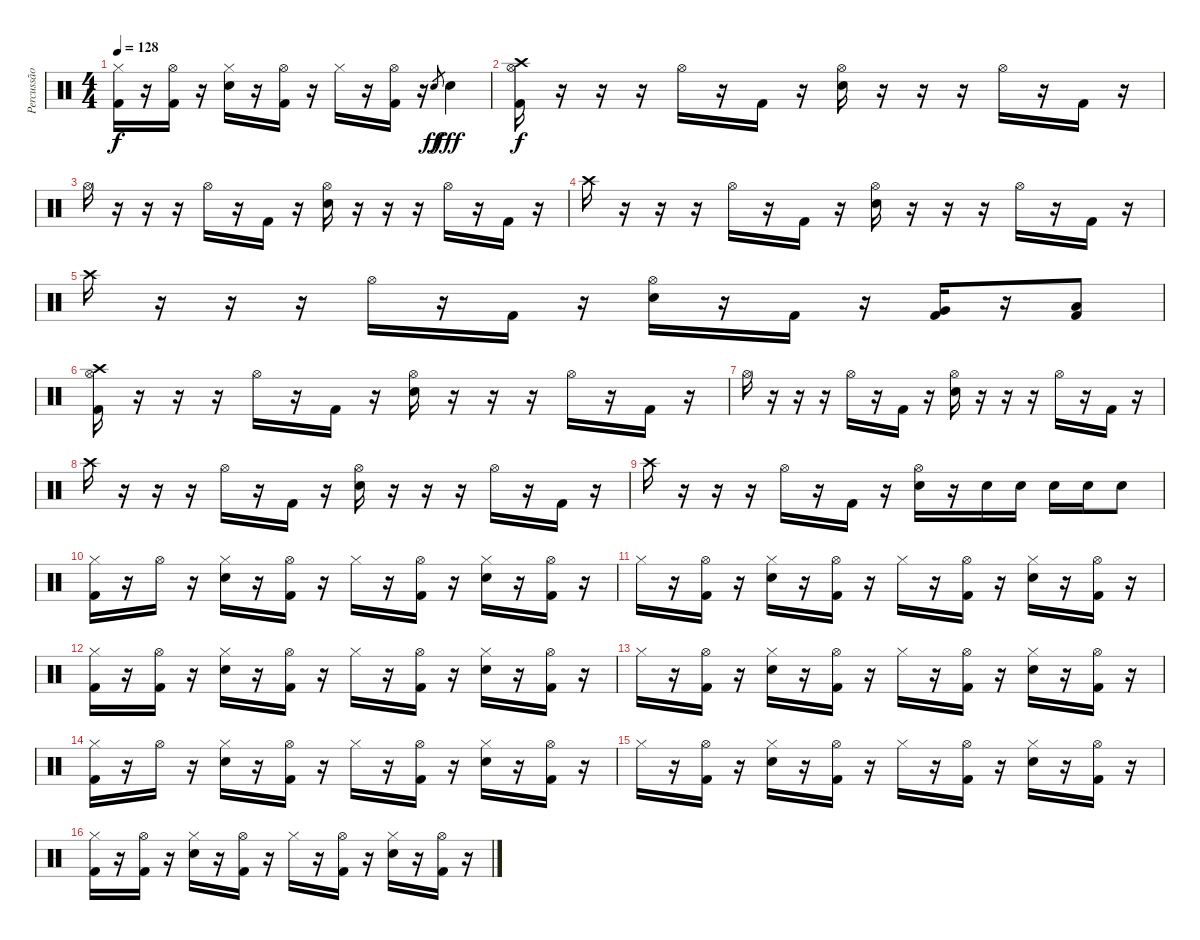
\track ("Percussão" "Percussão") {instrument percussion}
\staff {score}
\articulation defaults
\ts (4 4)
\tempo 128
\clef neutral
\ks c
("Hi-Hat (closed)" "Kick (hit) 2").16{dy f} r.16 ("Hi-Hat (open)" "Kick (hit) 2").16 r.16 ("Hi-Hat (closed)" "Electric Snare (hit)").16 r.16 ("Hi-Hat (open)" "Kick (hit) 2").16 r.16 "Hi-Hat (closed)".16 r.16 ("Hi-Hat (open)" "Kick (hit) 2").16 r.16 "Electric Snare (hit)".8{gr dy ff} "Electric Snare (hit)".4{dy fff} |
("Crash high (hit)" "Hi-Hat (open)" "Kick (hit) 2").16{dy f} r.16 r.16 r.16 "Hi-Hat (open)".16 r.16 "Kick (hit) 2".16 r.16 ("Hi-Hat (open)" "Electric Snare (hit)").16 r.16 r.16 r.16 "Hi-Hat (open)".16 r.16 "Kick (hit) 2".16 r.16 |
"Hi-Hat (open)".16 r.16 r.16 r.16 "Hi-Hat (open)".16 r.16 "Kick (hit) 2".16 r.16 ("Hi-Hat (open)" "Electric Snare (hit)").16 r.16 r.16 r.16 "Hi-Hat (open)".16 r.16 "Kick (hit) 2".16 r.16 |
"Crash high (hit)".16 r.16 r.16 r.16 "Hi-Hat (open)".16 r.16 "Kick (hit) 2".16 r.16 ("Hi-Hat (open)" "Electric Snare (hit)").16 r.16 r.16 r.16 "Hi-Hat (open)".16 r.16 "Kick (hit) 2".16 r.16 |
"Crash high (hit)".16 r.16 r.16 r.16 "Hi-Hat (open)".16 r.16 "Kick (hit) 2".16 r.16 ("Hi-Hat (open)" "Electric Snare (hit)").16 r.16 "Kick (hit) 2".16 r.16 ("Very Low Tom (hit)" "Kick (hit) 2").16 r.16 ("Low Floor Tom (hit)" "Kick (hit) 2").8 |
("Crash high (hit)" "Hi-Hat (open)" "Kick (hit) 2").16 r.16 r.16 r.16 "Hi-Hat (open)".16 r.16 "Kick (hit) 2".16 r.16 ("Hi-Hat (open)" "Electric Snare (hit)").16 r.16 r.16 r.16 "Hi-Hat (open)".16 r.16 "Kick (hit) 2".16 r.16 |
"Hi-Hat (open)".16 r.16 r.16 r.16 "Hi-Hat (open)".16 r.16 "Kick (hit) 2".16 r.16 ("Hi-Hat (open)" "Electric Snare (hit)").16 r.16 r.16 r.16 "Hi-Hat (open)".16 r.16 "Kick (hit) 2".16 r.16 |
"Crash high (hit)".16 r.16 r.16 r.16 "Hi-Hat (open)".16 r.16 "Kick (hit) 2".16 r.16 ("Hi-Hat (open)" "Electric Snare (hit)").16 r.16 r.16 r.16 "Hi-Hat (open)".16 r.16 "Kick (hit) 2".16 r.16 |
"Crash high (hit)".16 r.16 r.16 r.16 "Hi-Hat (open)".16 r.16 "Kick (hit) 2".16 r.16 ("Hi-Hat (open)" "Electric Snare (hit)").16 r.16 "Electric Snare (hit)".16 "Electric Snare (hit)".16 "Electric Snare (hit)".16 "Electric Snare (hit)".16 "Electric Snare (hit)".8 |
("Hi-Hat (closed)" "Kick (hit) 2").16 r.16 "Hi-Hat (open)".16 r.16 ("Hi-Hat (closed)" "Electric Snare (hit)").16 r.16 ("Hi-Hat (open)" "Kick (hit) 2").16 r.16 "Hi-Hat (closed)".16 r.16 ("Hi-Hat (open)" "Kick (hit) 2").16 r.16 ("Hi-Hat (closed)" "Electric Snare (hit)").16 r.16 ("Hi-Hat (open)" "Kick (hit) 2").16 r.16 |
"Hi-Hat (closed)".16 r.16 ("Hi-Hat (open)" "Kick (hit) 2").16 r.16 ("Hi-Hat (closed)" "Electric Snare (hit)").16 r.16 ("Hi-Hat (open)" "Kick (hit) 2").16 r.16 "Hi-Hat (closed)".16 r.16 ("Hi-Hat (open)" "Kick (hit) 2").16 r.16 ("Hi-Hat (closed)" "Electric Snare (hit)").16 r.16 ("Hi-Hat (open)" "Kick (hit) 2").16 r.16 |
("Hi-Hat (closed)" "Kick (hit) 2").16 r.16 ("Hi-Hat (open)" "Kick (hit) 2").16 r.16 ("Hi-Hat (closed)" "Electric Snare (hit)").16 r.16 ("Hi-Hat (open)" "Kick (hit) 2").16 r.16 "Hi-Hat (closed)".16 r.16 ("Hi-Hat (open)" "Kick (hit) 2").16 r.16 ("Hi-Hat (closed)" "Electric Snare (hit)").16 r.16 ("Hi-Hat (open)" "Kick (hit) 2").16 r.16 |
"Hi-Hat (closed)".16 r.16 ("Hi-Hat (open)" "Kick (hit) 2").16 r.16 ("Hi-Hat (closed)" "Electric Snare (hit)").16 r.16 ("Hi-Hat (open)" "Kick (hit) 2").16 r.16 "Hi-Hat (closed)".16 r.16 ("Hi-Hat (open)" "Kick (hit) 2").16 r.16 ("Hi-Hat (closed)" "Electric Snare (hit)").16 r.16 ("Hi-Hat (open)" "Kick (hit) 2").16 r.16 |
("Hi-Hat (closed)" "Kick (hit) 2").16 r.16 "Hi-Hat (open)".16 r.16 ("Hi-Hat (closed)" "Electric Snare (hit)").16 r.16 ("Hi-Hat (open)" "Kick (hit) 2").16 r.16 "Hi-Hat (closed)".16 r.16 ("Hi-Hat (open)" "Kick (hit) 2").16 r.16 ("Hi-Hat (closed)" "Electric Snare (hit)").16 r.16 ("Hi-Hat (open)" "Kick (hit) 2").16 r.16 |
"Hi-Hat (closed)".16 r.16 ("Hi-Hat (open)" "Kick (hit) 2").16 r.16 ("Hi-Hat (closed)" "Electric Snare (hit)").16 r.16 ("Hi-Hat (open)" "Kick (hit) 2").16 r.16 "Hi-Hat (closed)".16 r.16 ("Hi-Hat (open)" "Kick (hit) 2").16 r.16 ("Hi-Hat (closed)" "Electric Snare (hit)").16 r.16 ("Hi-Hat (open)" "Kick (hit) 2").16 r.16 |
("Hi-Hat (closed)" "Kick (hit) 2").16 r.16 ("Hi-Hat (open)" "Kick (hit) 2").16 r.16 ("Hi-Hat (closed)" "Electric Snare (hit)").16 r.16 ("Hi-Hat (open)" "Kick (hit) 2").16 r.16 "Hi-Hat (closed)".16 r.16 ("Hi-Hat (open)" "Kick (hit) 2").16 r.16 ("Hi-Hat (closed)" "Electric Snare (hit)").16 r.16 ("Hi-Hat (open)" "Kick (hit) 2").16 r.16
